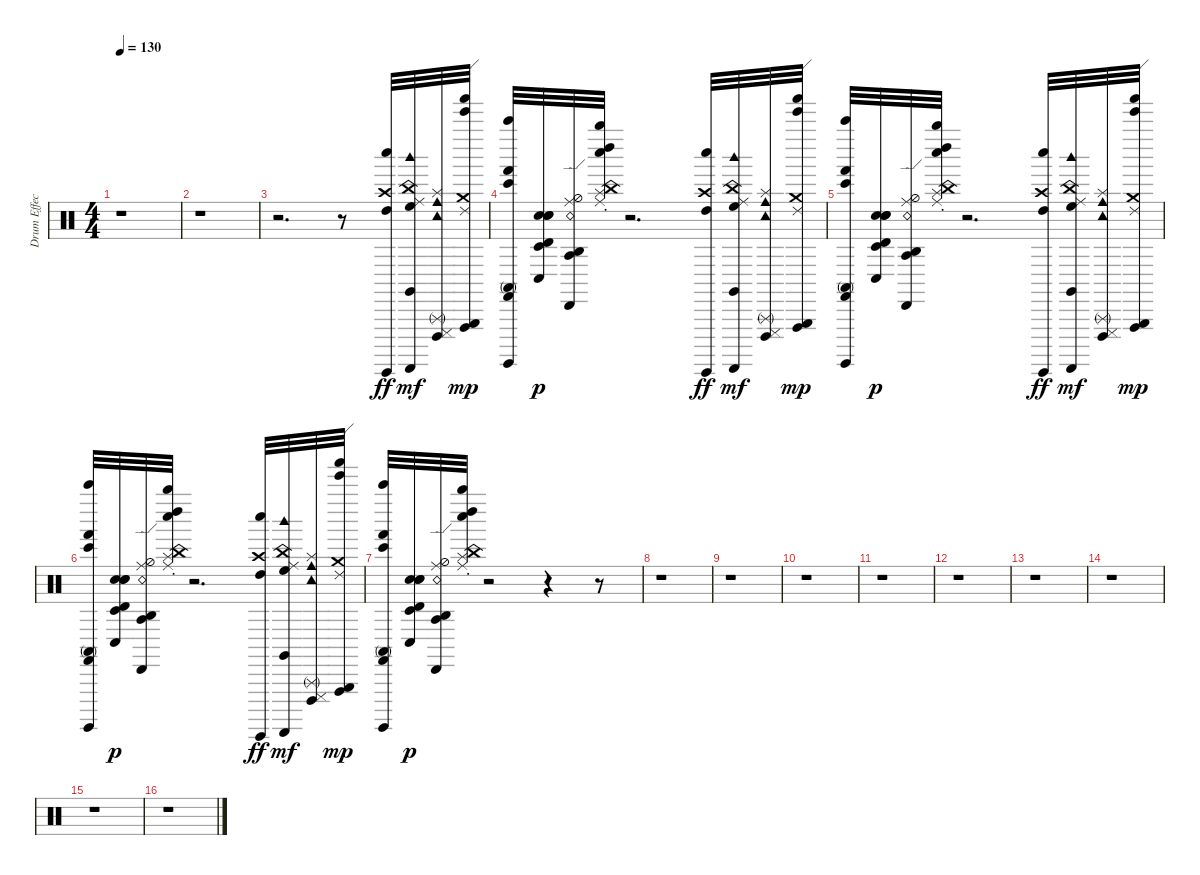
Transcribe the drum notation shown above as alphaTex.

\track ("Drum Effect" "Drum Effec") {instrument percussion}
\staff {score}
\articulation defaults
\ts (4 4)
\tempo 130
\clef neutral
\ks c
r.1{dy ff} |
r.1 |
r.2{d} r.8 ("Whistle low (hit)" "High Tom (hit)" "Crash high (hit)" "Guiro (hit)").32{volume 10 balance 6} ("High Floor Tom (hit)" "Guiro (scrap-return)" "Ride (middle)" "Claves (hit)" "China (hit)" "Woodblock high (hit)").32{dy mf} ("Tambourine (hit)" "Cuica (mute)" "Splash (hit)" "Cuica (open)" "Cowbell medium (hit)" "Triangle (rnute)").32 ("Crash medium (hit)" "Triangle (hit)" "Vibraslap (hit)" "Shaker (hit)" "Ride (edge) 2" "Tinkle Bell (hit)").32{dy mp} |
("Bongo High (hit)" "Bell Tree (hit)" "Hand (hit)" "Castanets (hit)" "Conga high (mute)" "Surdo (hit)").32 ("Conga low (hit)" "Snare (hit)" "Timbale high (hit)" "Snare (hit)" "Timbale low (hit)" "Snare (hit)").32{dy p} ("Agogo high (hit)" "Snare (rim shot)" "Agogo tow (hit)" "Hi-Hat (half)" "Cabasa (hit)" "Ride (edge)").32 ("Left Maraca (hit)" "Ride (choke)" "Whistle high (hit)" "Splash (choke)" "Whistle low (hit)" "China (choke)").32 r.2{d} ("High Tom (hit)" "Whistle low (hit)" "Crash high (hit)" "Guiro (hit)").32{dy ff} ("High Floor Tom (hit)" "Guiro (scrap-return)" "Ride (middle)" "Claves (hit)" "China (hit)" "Woodblock high (hit)").32{dy mf} ("Tambourine (hit)" "Cuica (mute)" "Splash (hit)" "Cuica (open)" "Cowbell medium (hit)" "Triangle (rnute)").32 ("Crash medium (hit)" "Triangle (hit)" "Vibraslap (hit)" "Shaker (hit)" "Ride (edge) 2" "Tinkle Bell (hit)").32{dy mp} |
("Bongo High (hit)" "Bell Tree (hit)" "Hand (hit)" "Castanets (hit)" "Conga high (mute)" "Surdo (hit)").32 ("Conga low (hit)" "Snare (hit)" "Timbale high (hit)" "Snare (hit)" "Timbale low (hit)" "Snare (hit)").32{dy p} ("Agogo high (hit)" "Snare (rim shot)" "Agogo tow (hit)" "Hi-Hat (half)" "Cabasa (hit)" "Ride (edge)").32 ("Left Maraca (hit)" "Ride (choke)" "Whistle high (hit)" "Splash (choke)" "Whistle low (hit)" "China (choke)").32 r.2{d} ("High Tom (hit)" "Whistle low (hit)" "Crash high (hit)" "Guiro (hit)").32{dy ff} ("High Floor Tom (hit)" "Guiro (scrap-return)" "Ride (middle)" "Claves (hit)" "China (hit)" "Woodblock high (hit)").32{dy mf} ("Tambourine (hit)" "Cuica (mute)" "Splash (hit)" "Cuica (open)" "Cowbell medium (hit)" "Triangle (rnute)").32 ("Crash medium (hit)" "Triangle (hit)" "Vibraslap (hit)" "Shaker (hit)" "Ride (edge) 2" "Tinkle Bell (hit)").32{dy mp} |
("Bongo High (hit)" "Bell Tree (hit)" "Hand (hit)" "Castanets (hit)" "Conga high (mute)" "Surdo (hit)").32 ("Conga low (hit)" "Snare (hit)" "Timbale high (hit)" "Snare (hit)" "Timbale low (hit)" "Snare (hit)").32{dy p} ("Agogo high (hit)" "Snare (rim shot)" "Agogo tow (hit)" "Hi-Hat (half)" "Cabasa (hit)" "Ride (edge)").32 ("Left Maraca (hit)" "Ride (choke)" "Whistle high (hit)" "Splash (choke)" "Whistle low (hit)" "China (choke)").32 r.2{d} ("High Tom (hit)" "Whistle low (hit)" "Crash high (hit)" "Guiro (hit)").32{dy ff} ("High Floor Tom (hit)" "Guiro (scrap-return)" "Ride (middle)" "Claves (hit)" "China (hit)" "Woodblock high (hit)").32{dy mf} ("Tambourine (hit)" "Cuica (mute)" "Splash (hit)" "Cuica (open)" "Cowbell medium (hit)" "Triangle (rnute)").32 ("Crash medium (hit)" "Triangle (hit)" "Vibraslap (hit)" "Shaker (hit)" "Ride (edge) 2" "Tinkle Bell (hit)").32{dy mp} |
("Bongo High (hit)" "Bell Tree (hit)" "Hand (hit)" "Castanets (hit)" "Conga high (mute)" "Surdo (hit)").32 ("Conga low (hit)" "Snare (hit)" "Timbale high (hit)" "Snare (hit)" "Timbale low (hit)" "Snare (hit)").32{dy p} ("Agogo high (hit)" "Snare (rim shot)" "Agogo tow (hit)" "Hi-Hat (half)" "Cabasa (hit)" "Ride (edge)").32 ("Left Maraca (hit)" "Ride (choke)" "Whistle high (hit)" "Splash (choke)" "Whistle low (hit)" "China (choke)").32 r.2 r.4 r.8 |
r.1 |
r.1 |
r.1 |
r.1 |
r.1 |
r.1 |
r.1 |
r.1 |
r.1
